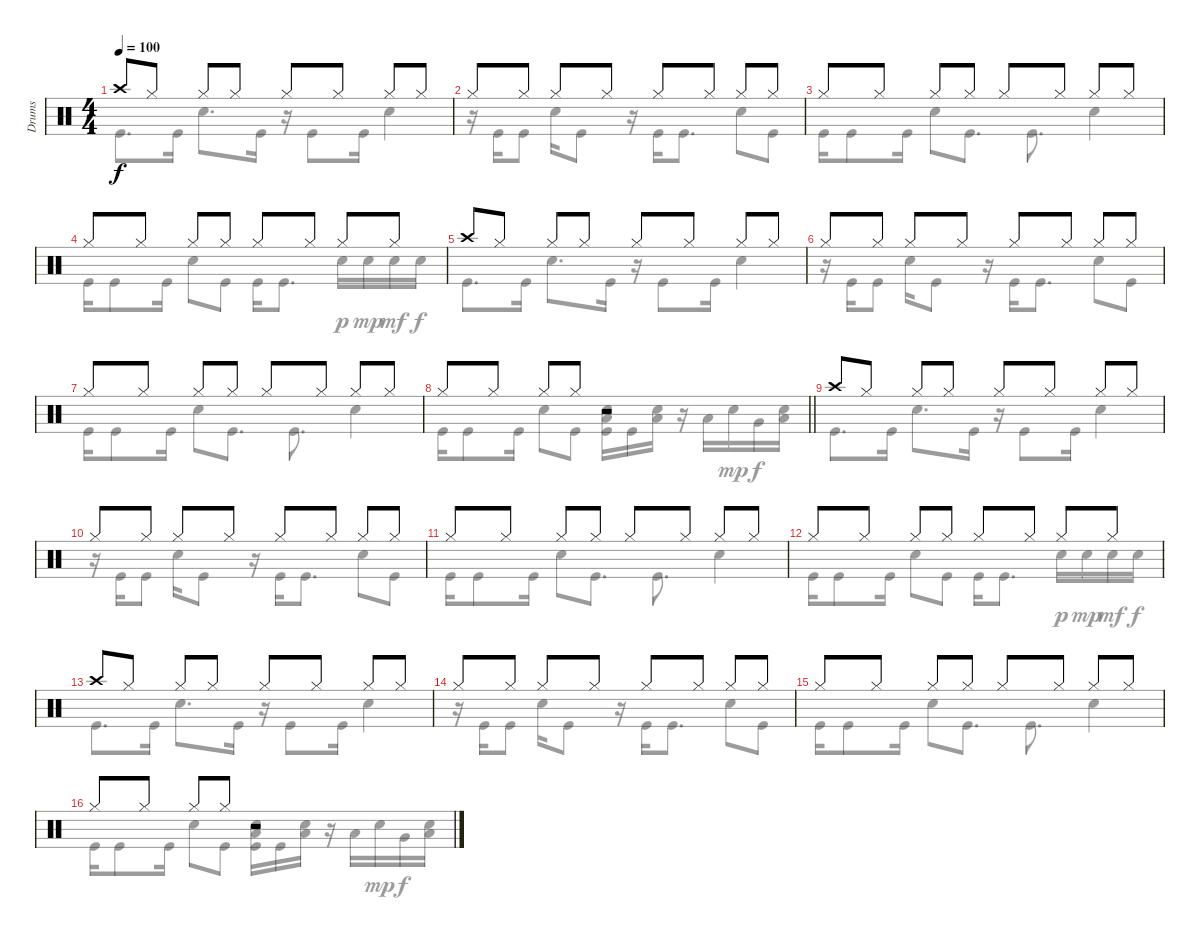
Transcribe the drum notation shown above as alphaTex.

\track ("Drums" "Drums") {instrument percussion}
\staff {score}
\articulation defaults
\voice
\ts (4 4)
\tempo 100
\clef neutral
\ks c "Crash high (hit)".8{dy f} "Hi-Hat (closed)".8 "Hi-Hat (closed)".8 "Hi-Hat (closed)".8 "Hi-Hat (closed)".8 "Hi-Hat (closed)".8 "Hi-Hat (closed)".8 "Hi-Hat (closed)".8
|
"Hi-Hat (closed)".8 "Hi-Hat (closed)".8 "Hi-Hat (closed)".8 "Hi-Hat (closed)".8 "Hi-Hat (closed)".8 "Hi-Hat (closed)".8 "Hi-Hat (closed)".8 "Hi-Hat (closed)".8 |
"Hi-Hat (closed)".8 "Hi-Hat (closed)".8 "Hi-Hat (closed)".8 "Hi-Hat (closed)".8 "Hi-Hat (closed)".8 "Hi-Hat (closed)".8 "Hi-Hat (closed)".8 "Hi-Hat (closed)".8 |
"Hi-Hat (closed)".8 "Hi-Hat (closed)".8 "Hi-Hat (closed)".8 "Hi-Hat (closed)".8 "Hi-Hat (closed)".8 "Hi-Hat (closed)".8 "Hi-Hat (closed)".8 "Hi-Hat (closed)".8 |
"Crash high (hit)".8 "Hi-Hat (closed)".8 "Hi-Hat (closed)".8 "Hi-Hat (closed)".8 "Hi-Hat (closed)".8 "Hi-Hat (closed)".8 "Hi-Hat (closed)".8 "Hi-Hat (closed)".8 |
"Hi-Hat (closed)".8 "Hi-Hat (closed)".8 "Hi-Hat (closed)".8 "Hi-Hat (closed)".8 "Hi-Hat (closed)".8 "Hi-Hat (closed)".8 "Hi-Hat (closed)".8 "Hi-Hat (closed)".8 |
"Hi-Hat (closed)".8 "Hi-Hat (closed)".8 "Hi-Hat (closed)".8 "Hi-Hat (closed)".8 "Hi-Hat (closed)".8 "Hi-Hat (closed)".8 "Hi-Hat (closed)".8 "Hi-Hat (closed)".8 |
\barLineRight lightlight "Hi-Hat (closed)".8 "Hi-Hat (closed)".8 "Hi-Hat (closed)".8 "Hi-Hat (closed)".8
r.2 |
"Crash high (hit)".8 "Hi-Hat (closed)".8 "Hi-Hat (closed)".8 "Hi-Hat (closed)".8 "Hi-Hat (closed)".8 "Hi-Hat (closed)".8 "Hi-Hat (closed)".8 "Hi-Hat (closed)".8 |
"Hi-Hat (closed)".8 "Hi-Hat (closed)".8 "Hi-Hat (closed)".8 "Hi-Hat (closed)".8 "Hi-Hat (closed)".8 "Hi-Hat (closed)".8 "Hi-Hat (closed)".8 "Hi-Hat (closed)".8 |
"Hi-Hat (closed)".8 "Hi-Hat (closed)".8 "Hi-Hat (closed)".8 "Hi-Hat (closed)".8 "Hi-Hat (closed)".8 "Hi-Hat (closed)".8 "Hi-Hat (closed)".8 "Hi-Hat (closed)".8 |
"Hi-Hat (closed)".8 "Hi-Hat (closed)".8 "Hi-Hat (closed)".8 "Hi-Hat (closed)".8 "Hi-Hat (closed)".8 "Hi-Hat (closed)".8 "Hi-Hat (closed)".8 "Hi-Hat (closed)".8 |
"Crash high (hit)".8 "Hi-Hat (closed)".8 "Hi-Hat (closed)".8 "Hi-Hat (closed)".8 "Hi-Hat (closed)".8 "Hi-Hat (closed)".8 "Hi-Hat (closed)".8 "Hi-Hat (closed)".8 |
"Hi-Hat (closed)".8 "Hi-Hat (closed)".8 "Hi-Hat (closed)".8 "Hi-Hat (closed)".8 "Hi-Hat (closed)".8 "Hi-Hat (closed)".8 "Hi-Hat (closed)".8 "Hi-Hat (closed)".8 |
"Hi-Hat (closed)".8 "Hi-Hat (closed)".8 "Hi-Hat (closed)".8 "Hi-Hat (closed)".8 "Hi-Hat (closed)".8 "Hi-Hat (closed)".8 "Hi-Hat (closed)".8 "Hi-Hat (closed)".8 |
"Hi-Hat (closed)".8 "Hi-Hat (closed)".8 "Hi-Hat (closed)".8 "Hi-Hat (closed)".8 r.2
\voice
\clef neutral
\ottava regular
\simile none
\ks c "Kick (hit)".8{d dy f} "Kick (hit)".16 "Snare (hit) 2".8{d} "Kick (hit)".16
r.16 "Kick (hit)".8 "Kick (hit)".16 "Snare (hit) 2".4 |
r.16 "Kick (hit)".16 "Kick (hit)".8 "Snare (hit) 2".16 "Kick (hit)".8 r.16 "Kick (hit)".16 "Kick (hit)".8{d} "Snare (hit) 2".8 "Kick (hit)".8 |
"Kick (hit)".16 "Kick (hit)".8 "Kick (hit)".16 "Snare (hit) 2".8 "Kick (hit)".8{d} "Kick (hit)".8{d} "Snare (hit) 2".4 |
"Kick (hit)".16 "Kick (hit)".8 "Kick (hit)".16 "Snare (hit) 2".8 "Kick (hit)".8 "Kick (hit)".16 "Kick (hit)".8{d} "Snare (hit) 2".16{dy p} "Snare (hit) 2".16{dy mp} "Snare (hit) 2".16{dy mf} "Snare (hit) 2".16{dy f} |
"Kick (hit)".8{d} "Kick (hit)".16 "Snare (hit) 2".8{d} "Kick (hit)".16 r.16 "Kick (hit)".8 "Kick (hit)".16 "Snare (hit) 2".4 |
r.16 "Kick (hit)".16 "Kick (hit)".8 "Snare (hit) 2".16 "Kick (hit)".8 r.16 "Kick (hit)".16 "Kick (hit)".8{d} "Snare (hit) 2".8 "Kick (hit)".8 |
"Kick (hit)".16 "Kick (hit)".8 "Kick (hit)".16 "Snare (hit) 2".8 "Kick (hit)".8{d} "Kick (hit)".8{d} "Snare (hit) 2".4 |
\barLineRight lightlight "Kick (hit)".16 "Kick (hit)".8 "Kick (hit)".16 "Snare (hit) 2".8 "Kick (hit)".8
("Snare (hit) 2" "Low Floor Tom (hit)" "Kick (hit)").16 "Kick (hit)".16 ("Snare (hit) 2" "Low Floor Tom (hit)").16 r.16 "Low Tom (hit)".16 "Snare (hit) 2".16{dy mp} "Very Low Tom (hit)".16{dy f} ("Snare (hit) 2" "Low Floor Tom (hit)").16 |
"Kick (hit)".8{d} "Kick (hit)".16 "Snare (hit) 2".8{d} "Kick (hit)".16 r.16 "Kick (hit)".8 "Kick (hit)".16 "Snare (hit) 2".4 |
r.16 "Kick (hit)".16 "Kick (hit)".8 "Snare (hit) 2".16 "Kick (hit)".8 r.16 "Kick (hit)".16 "Kick (hit)".8{d} "Snare (hit) 2".8 "Kick (hit)".8 |
"Kick (hit)".16 "Kick (hit)".8 "Kick (hit)".16 "Snare (hit) 2".8 "Kick (hit)".8{d} "Kick (hit)".8{d} "Snare (hit) 2".4 |
"Kick (hit)".16 "Kick (hit)".8 "Kick (hit)".16 "Snare (hit) 2".8 "Kick (hit)".8 "Kick (hit)".16 "Kick (hit)".8{d} "Snare (hit) 2".16{dy p} "Snare (hit) 2".16{dy mp} "Snare (hit) 2".16{dy mf} "Snare (hit) 2".16{dy f} |
"Kick (hit)".8{d} "Kick (hit)".16 "Snare (hit) 2".8{d} "Kick (hit)".16 r.16 "Kick (hit)".8 "Kick (hit)".16 "Snare (hit) 2".4 |
r.16 "Kick (hit)".16 "Kick (hit)".8 "Snare (hit) 2".16 "Kick (hit)".8 r.16 "Kick (hit)".16 "Kick (hit)".8{d} "Snare (hit) 2".8 "Kick (hit)".8 |
"Kick (hit)".16 "Kick (hit)".8 "Kick (hit)".16 "Snare (hit) 2".8 "Kick (hit)".8{d} "Kick (hit)".8{d} "Snare (hit) 2".4 |
"Kick (hit)".16 "Kick (hit)".8 "Kick (hit)".16 "Snare (hit) 2".8 "Kick (hit)".8 ("Snare (hit) 2" "Low Floor Tom (hit)" "Kick (hit)").16 "Kick (hit)".16 ("Snare (hit) 2" "Low Floor Tom (hit)").16 r.16 "Low Tom (hit)".16 "Snare (hit) 2".16{dy mp} "Very Low Tom (hit)".16{dy f} ("Snare (hit) 2" "Low Floor Tom (hit)").16
